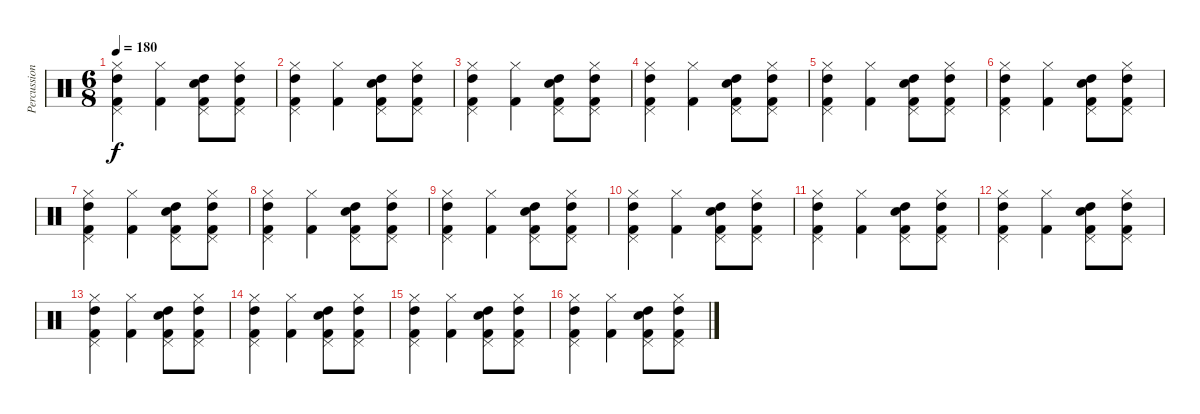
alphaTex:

\track ("Percussion" "Percussion") {instrument percussion}
\staff {score}
\articulation defaults
\ts (6 8)
\tempo 180
\clef neutral
\ks c
("Kick (hit) 2" "High Tom (hit)" "Pedal Hi-Hat (hit)" "Hi-Hat (closed)").4{dy f} ("Kick (hit) 2" "Hi-Hat (closed)").4 ("Kick (hit) 2" "High Tom (hit)" "Pedal Hi-Hat (hit)" "Snare (hit)").8 ("Kick (hit) 2" "High Tom (hit)" "Pedal Hi-Hat (hit)" "Hi-Hat (closed)").8 |
("Kick (hit) 2" "High Tom (hit)" "Pedal Hi-Hat (hit)" "Hi-Hat (closed)").4 ("Kick (hit) 2" "Hi-Hat (closed)").4 ("Kick (hit) 2" "High Tom (hit)" "Pedal Hi-Hat (hit)" "Snare (hit)").8 ("Kick (hit) 2" "High Tom (hit)" "Pedal Hi-Hat (hit)" "Hi-Hat (closed)").8 |
("Kick (hit) 2" "High Tom (hit)" "Pedal Hi-Hat (hit)" "Hi-Hat (closed)").4 ("Kick (hit) 2" "Hi-Hat (closed)").4 ("Kick (hit) 2" "High Tom (hit)" "Pedal Hi-Hat (hit)" "Snare (hit)").8 ("Kick (hit) 2" "High Tom (hit)" "Pedal Hi-Hat (hit)" "Hi-Hat (closed)").8 |
("Kick (hit) 2" "High Tom (hit)" "Pedal Hi-Hat (hit)" "Hi-Hat (closed)").4 ("Kick (hit) 2" "Hi-Hat (closed)").4 ("Kick (hit) 2" "High Tom (hit)" "Pedal Hi-Hat (hit)" "Snare (hit)").8 ("Kick (hit) 2" "High Tom (hit)" "Pedal Hi-Hat (hit)" "Hi-Hat (closed)").8 |
("Kick (hit) 2" "High Tom (hit)" "Pedal Hi-Hat (hit)" "Hi-Hat (closed)").4 ("Kick (hit) 2" "Hi-Hat (closed)").4 ("Kick (hit) 2" "High Tom (hit)" "Pedal Hi-Hat (hit)" "Snare (hit)").8 ("Kick (hit) 2" "High Tom (hit)" "Pedal Hi-Hat (hit)" "Hi-Hat (closed)").8 |
("Kick (hit) 2" "High Tom (hit)" "Pedal Hi-Hat (hit)" "Hi-Hat (closed)").4 ("Kick (hit) 2" "Hi-Hat (closed)").4 ("Kick (hit) 2" "High Tom (hit)" "Pedal Hi-Hat (hit)" "Snare (hit)").8 ("Kick (hit) 2" "High Tom (hit)" "Pedal Hi-Hat (hit)" "Hi-Hat (closed)").8 |
("Kick (hit) 2" "High Tom (hit)" "Pedal Hi-Hat (hit)" "Hi-Hat (closed)").4 ("Kick (hit) 2" "Hi-Hat (closed)").4 ("Kick (hit) 2" "High Tom (hit)" "Pedal Hi-Hat (hit)" "Snare (hit)").8 ("Kick (hit) 2" "High Tom (hit)" "Pedal Hi-Hat (hit)" "Hi-Hat (closed)").8 |
("Kick (hit) 2" "High Tom (hit)" "Pedal Hi-Hat (hit)" "Hi-Hat (closed)").4 ("Kick (hit) 2" "Hi-Hat (closed)").4 ("Kick (hit) 2" "High Tom (hit)" "Pedal Hi-Hat (hit)" "Snare (hit)").8 ("Kick (hit) 2" "High Tom (hit)" "Pedal Hi-Hat (hit)" "Hi-Hat (closed)").8 |
("Kick (hit) 2" "High Tom (hit)" "Pedal Hi-Hat (hit)" "Hi-Hat (closed)").4 ("Kick (hit) 2" "Hi-Hat (closed)").4 ("Kick (hit) 2" "High Tom (hit)" "Pedal Hi-Hat (hit)" "Snare (hit)").8 ("Kick (hit) 2" "High Tom (hit)" "Pedal Hi-Hat (hit)" "Hi-Hat (closed)").8 |
("Kick (hit) 2" "High Tom (hit)" "Pedal Hi-Hat (hit)" "Hi-Hat (closed)").4 ("Kick (hit) 2" "Hi-Hat (closed)").4 ("Kick (hit) 2" "High Tom (hit)" "Pedal Hi-Hat (hit)" "Snare (hit)").8 ("Kick (hit) 2" "High Tom (hit)" "Pedal Hi-Hat (hit)" "Hi-Hat (closed)").8 |
("Kick (hit) 2" "High Tom (hit)" "Pedal Hi-Hat (hit)" "Hi-Hat (closed)").4 ("Kick (hit) 2" "Hi-Hat (closed)").4 ("Kick (hit) 2" "High Tom (hit)" "Pedal Hi-Hat (hit)" "Snare (hit)").8 ("Kick (hit) 2" "High Tom (hit)" "Pedal Hi-Hat (hit)" "Hi-Hat (closed)").8 |
("Kick (hit) 2" "High Tom (hit)" "Pedal Hi-Hat (hit)" "Hi-Hat (closed)").4 ("Kick (hit) 2" "Hi-Hat (closed)").4 ("Kick (hit) 2" "High Tom (hit)" "Pedal Hi-Hat (hit)" "Snare (hit)").8 ("Kick (hit) 2" "High Tom (hit)" "Pedal Hi-Hat (hit)" "Hi-Hat (closed)").8 |
("Kick (hit) 2" "High Tom (hit)" "Pedal Hi-Hat (hit)" "Hi-Hat (closed)").4 ("Kick (hit) 2" "Hi-Hat (closed)").4 ("Kick (hit) 2" "High Tom (hit)" "Pedal Hi-Hat (hit)" "Snare (hit)").8 ("Kick (hit) 2" "High Tom (hit)" "Pedal Hi-Hat (hit)" "Hi-Hat (closed)").8 |
("Kick (hit) 2" "High Tom (hit)" "Pedal Hi-Hat (hit)" "Hi-Hat (closed)").4 ("Kick (hit) 2" "Hi-Hat (closed)").4 ("Kick (hit) 2" "High Tom (hit)" "Pedal Hi-Hat (hit)" "Snare (hit)").8 ("Kick (hit) 2" "High Tom (hit)" "Pedal Hi-Hat (hit)" "Hi-Hat (closed)").8 |
("Kick (hit) 2" "High Tom (hit)" "Pedal Hi-Hat (hit)" "Hi-Hat (closed)").4 ("Kick (hit) 2" "Hi-Hat (closed)").4 ("Kick (hit) 2" "High Tom (hit)" "Pedal Hi-Hat (hit)" "Snare (hit)").8 ("Kick (hit) 2" "High Tom (hit)" "Pedal Hi-Hat (hit)" "Hi-Hat (closed)").8 |
("Kick (hit) 2" "High Tom (hit)" "Pedal Hi-Hat (hit)" "Hi-Hat (closed)").4 ("Kick (hit) 2" "Hi-Hat (closed)").4 ("Kick (hit) 2" "High Tom (hit)" "Pedal Hi-Hat (hit)" "Snare (hit)").8 ("Kick (hit) 2" "High Tom (hit)" "Pedal Hi-Hat (hit)" "Hi-Hat (closed)").8
